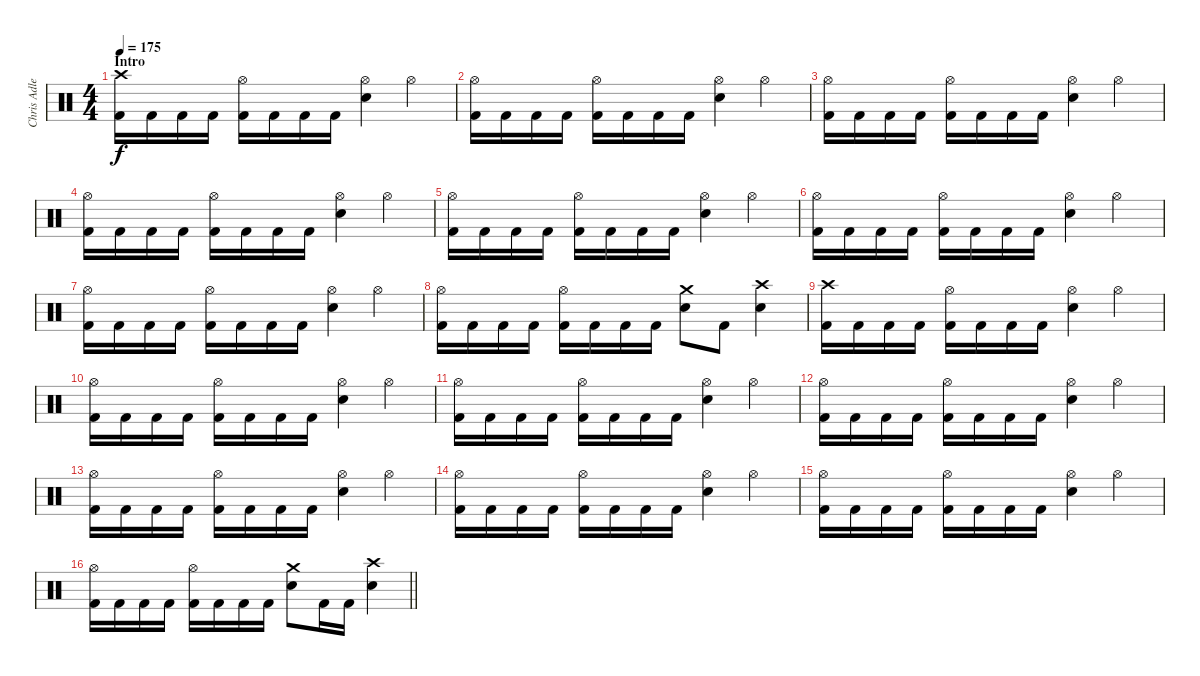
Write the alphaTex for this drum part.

\track ("Chris Adler" "Chris Adle") {instrument percussion}
\staff {score}
\articulation defaults
\ts (4 4)
\section ("" "Intro")
\tempo 175
\clef neutral
\ks c
("Crash high (hit)" "Kick (hit) 2").16{dy f} "Kick (hit) 2".16 "Kick (hit) 2".16 "Kick (hit) 2".16 ("Hi-Hat (open)" "Kick (hit) 2").16 "Kick (hit) 2".16 "Kick (hit) 2".16 "Kick (hit) 2".16 ("Hi-Hat (open)" "Electric Snare (hit)").4 "Hi-Hat (open)".4 |
("Hi-Hat (open)" "Kick (hit) 2").16 "Kick (hit) 2".16 "Kick (hit) 2".16 "Kick (hit) 2".16 ("Hi-Hat (open)" "Kick (hit) 2").16 "Kick (hit) 2".16 "Kick (hit) 2".16 "Kick (hit) 2".16 ("Hi-Hat (open)" "Electric Snare (hit)").4 "Hi-Hat (open)".4 |
("Hi-Hat (open)" "Kick (hit) 2").16 "Kick (hit) 2".16 "Kick (hit) 2".16 "Kick (hit) 2".16 ("Hi-Hat (open)" "Kick (hit) 2").16 "Kick (hit) 2".16 "Kick (hit) 2".16 "Kick (hit) 2".16 ("Hi-Hat (open)" "Electric Snare (hit)").4 "Hi-Hat (open)".4 |
("Hi-Hat (open)" "Kick (hit) 2").16 "Kick (hit) 2".16 "Kick (hit) 2".16 "Kick (hit) 2".16 ("Hi-Hat (open)" "Kick (hit) 2").16 "Kick (hit) 2".16 "Kick (hit) 2".16 "Kick (hit) 2".16 ("Hi-Hat (open)" "Electric Snare (hit)").4 "Hi-Hat (open)".4 |
("Hi-Hat (open)" "Kick (hit) 2").16 "Kick (hit) 2".16 "Kick (hit) 2".16 "Kick (hit) 2".16 ("Hi-Hat (open)" "Kick (hit) 2").16 "Kick (hit) 2".16 "Kick (hit) 2".16 "Kick (hit) 2".16 ("Hi-Hat (open)" "Electric Snare (hit)").4 "Hi-Hat (open)".4 |
("Hi-Hat (open)" "Kick (hit) 2").16 "Kick (hit) 2".16 "Kick (hit) 2".16 "Kick (hit) 2".16 ("Hi-Hat (open)" "Kick (hit) 2").16 "Kick (hit) 2".16 "Kick (hit) 2".16 "Kick (hit) 2".16 ("Hi-Hat (open)" "Electric Snare (hit)").4 "Hi-Hat (open)".4 |
("Hi-Hat (open)" "Kick (hit) 2").16 "Kick (hit) 2".16 "Kick (hit) 2".16 "Kick (hit) 2".16 ("Hi-Hat (open)" "Kick (hit) 2").16 "Kick (hit) 2".16 "Kick (hit) 2".16 "Kick (hit) 2".16 ("Hi-Hat (open)" "Electric Snare (hit)").4 "Hi-Hat (open)".4 |
("Hi-Hat (open)" "Kick (hit) 2").16 "Kick (hit) 2".16 "Kick (hit) 2".16 "Kick (hit) 2".16 ("Hi-Hat (open)" "Kick (hit) 2").16 "Kick (hit) 2".16 "Kick (hit) 2".16 "Kick (hit) 2".16 ("Crash medium (hit)" "Electric Snare (hit)").8 "Kick (hit) 2".8 ("Crash high (hit)" "Electric Snare (hit)").4 |
("Crash high (hit)" "Kick (hit) 2").16 "Kick (hit) 2".16 "Kick (hit) 2".16 "Kick (hit) 2".16 ("Hi-Hat (open)" "Kick (hit) 2").16 "Kick (hit) 2".16 "Kick (hit) 2".16 "Kick (hit) 2".16 ("Hi-Hat (open)" "Electric Snare (hit)").4 "Hi-Hat (open)".4 |
("Hi-Hat (open)" "Kick (hit) 2").16 "Kick (hit) 2".16 "Kick (hit) 2".16 "Kick (hit) 2".16 ("Hi-Hat (open)" "Kick (hit) 2").16 "Kick (hit) 2".16 "Kick (hit) 2".16 "Kick (hit) 2".16 ("Hi-Hat (open)" "Electric Snare (hit)").4 "Hi-Hat (open)".4 |
("Hi-Hat (open)" "Kick (hit) 2").16 "Kick (hit) 2".16 "Kick (hit) 2".16 "Kick (hit) 2".16 ("Hi-Hat (open)" "Kick (hit) 2").16 "Kick (hit) 2".16 "Kick (hit) 2".16 "Kick (hit) 2".16 ("Hi-Hat (open)" "Electric Snare (hit)").4 "Hi-Hat (open)".4 |
("Hi-Hat (open)" "Kick (hit) 2").16 "Kick (hit) 2".16 "Kick (hit) 2".16 "Kick (hit) 2".16 ("Hi-Hat (open)" "Kick (hit) 2").16 "Kick (hit) 2".16 "Kick (hit) 2".16 "Kick (hit) 2".16 ("Hi-Hat (open)" "Electric Snare (hit)").4 "Hi-Hat (open)".4 |
("Hi-Hat (open)" "Kick (hit) 2").16 "Kick (hit) 2".16 "Kick (hit) 2".16 "Kick (hit) 2".16 ("Hi-Hat (open)" "Kick (hit) 2").16 "Kick (hit) 2".16 "Kick (hit) 2".16 "Kick (hit) 2".16 ("Hi-Hat (open)" "Electric Snare (hit)").4 "Hi-Hat (open)".4 |
("Hi-Hat (open)" "Kick (hit) 2").16 "Kick (hit) 2".16 "Kick (hit) 2".16 "Kick (hit) 2".16 ("Hi-Hat (open)" "Kick (hit) 2").16 "Kick (hit) 2".16 "Kick (hit) 2".16 "Kick (hit) 2".16 ("Hi-Hat (open)" "Electric Snare (hit)").4 "Hi-Hat (open)".4 |
("Hi-Hat (open)" "Kick (hit) 2").16 "Kick (hit) 2".16 "Kick (hit) 2".16 "Kick (hit) 2".16 ("Hi-Hat (open)" "Kick (hit) 2").16 "Kick (hit) 2".16 "Kick (hit) 2".16 "Kick (hit) 2".16 ("Hi-Hat (open)" "Electric Snare (hit)").4 "Hi-Hat (open)".4 |
\barLineRight lightlight
("Hi-Hat (open)" "Kick (hit) 2").16 "Kick (hit) 2".16 "Kick (hit) 2".16 "Kick (hit) 2".16 ("Hi-Hat (open)" "Kick (hit) 2").16 "Kick (hit) 2".16 "Kick (hit) 2".16 "Kick (hit) 2".16 ("Crash medium (hit)" "Electric Snare (hit)").8 "Kick (hit) 2".16 "Kick (hit) 2".16 ("Crash high (hit)" "Electric Snare (hit)").4
